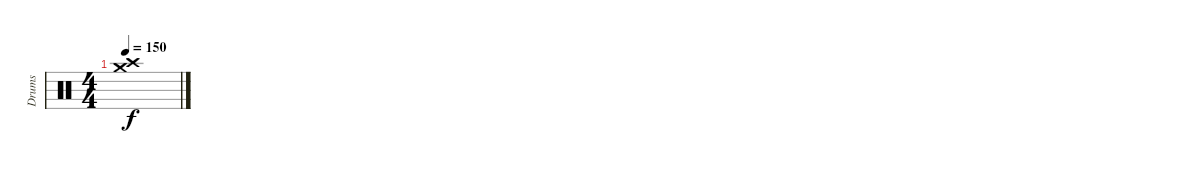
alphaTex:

\track ("Drums" "Drums") {instrument percussion}
\staff {score}
\articulation defaults
\ts (4 4)
\tempo 150
\clef neutral
\ks c
("Crash medium (hit)" "Crash high (hit)").1{dy f}
